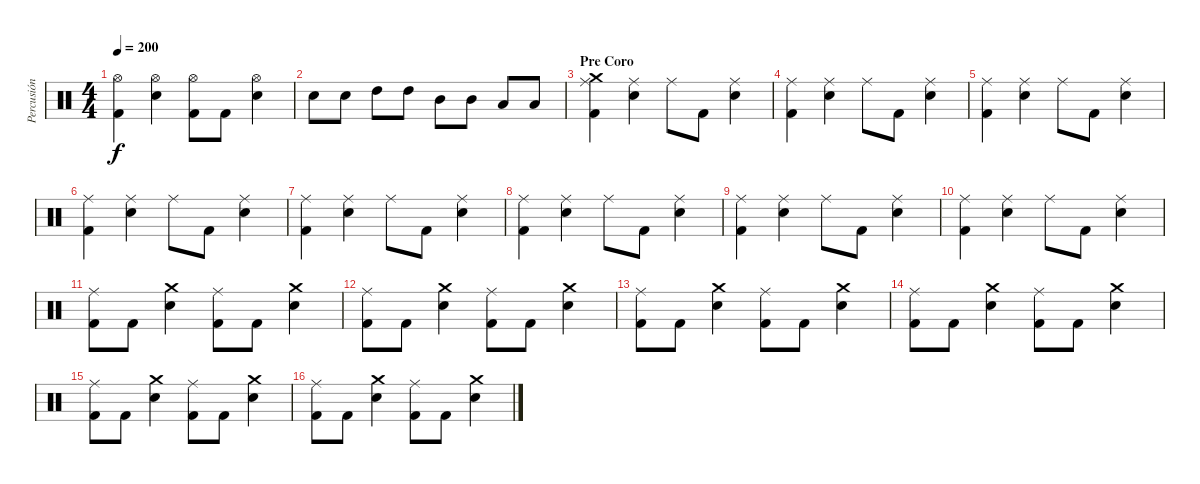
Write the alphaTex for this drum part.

\track ("Percusión" "Percusión") {instrument percussion}
\staff {score}
\articulation defaults
\ts (4 4)
\tempo 200
\clef neutral
\ks c
("Hi-Hat (open)" "Kick (hit) 2").4{dy f} ("Snare (hit) 2" "Hi-Hat (open)").4 ("Hi-Hat (open)" "Kick (hit) 2").8 "Kick (hit) 2".8 ("Snare (hit) 2" "Hi-Hat (open)").4 |
"Snare (hit) 2".8 "Snare (hit) 2".8 "High Tom (hit)".8 "High Tom (hit)".8 "Mid Tom (hit)".8 "Mid Tom (hit)".8 "Low Tom (hit)".8 "Low Tom (hit)".8 |
\section ("" "Pre Coro")
("Crash medium (hit)" "Kick (hit) 2" "Ride (middle)").4 ("Ride (middle)" "Snare (hit) 2").4 "Ride (middle)".8 "Kick (hit) 2".8 ("Ride (middle)" "Snare (hit) 2").4 |
("Kick (hit) 2" "Ride (middle)").4 ("Ride (middle)" "Snare (hit) 2").4 "Ride (middle)".8 "Kick (hit) 2".8 ("Ride (middle)" "Snare (hit) 2").4 |
("Kick (hit) 2" "Ride (middle)").4 ("Ride (middle)" "Snare (hit) 2").4 "Ride (middle)".8 "Kick (hit) 2".8 ("Ride (middle)" "Snare (hit) 2").4 |
("Kick (hit) 2" "Ride (middle)").4 ("Ride (middle)" "Snare (hit) 2").4 "Ride (middle)".8 "Kick (hit) 2".8 ("Ride (middle)" "Snare (hit) 2").4 |
("Kick (hit) 2" "Ride (middle)").4 ("Ride (middle)" "Snare (hit) 2").4 "Ride (middle)".8 "Kick (hit) 2".8 ("Ride (middle)" "Snare (hit) 2").4 |
("Kick (hit) 2" "Ride (middle)").4 ("Ride (middle)" "Snare (hit) 2").4 "Ride (middle)".8 "Kick (hit) 2".8 ("Ride (middle)" "Snare (hit) 2").4 |
("Kick (hit) 2" "Ride (middle)").4 ("Ride (middle)" "Snare (hit) 2").4 "Ride (middle)".8 "Kick (hit) 2".8 ("Ride (middle)" "Snare (hit) 2").4 |
("Kick (hit) 2" "Ride (middle)").4 ("Ride (middle)" "Snare (hit) 2").4 "Ride (middle)".8 "Kick (hit) 2".8 ("Ride (middle)" "Snare (hit) 2").4 |
("Kick (hit) 2" "Ride (middle)").8 "Kick (hit) 2".8 ("Snare (hit) 2" "Crash medium (hit)").4 ("Kick (hit) 2" "Ride (middle)").8 "Kick (hit) 2".8 ("Snare (hit) 2" "Crash medium (hit)").4 |
("Kick (hit) 2" "Ride (middle)").8 "Kick (hit) 2".8 ("Snare (hit) 2" "Crash medium (hit)").4 ("Kick (hit) 2" "Ride (middle)").8 "Kick (hit) 2".8 ("Snare (hit) 2" "Crash medium (hit)").4 |
("Kick (hit) 2" "Ride (middle)").8 "Kick (hit) 2".8 ("Snare (hit) 2" "Crash medium (hit)").4 ("Kick (hit) 2" "Ride (middle)").8 "Kick (hit) 2".8 ("Snare (hit) 2" "Crash medium (hit)").4 |
("Kick (hit) 2" "Ride (middle)").8 "Kick (hit) 2".8 ("Snare (hit) 2" "Crash medium (hit)").4 ("Kick (hit) 2" "Ride (middle)").8 "Kick (hit) 2".8 ("Snare (hit) 2" "Crash medium (hit)").4 |
("Kick (hit) 2" "Ride (middle)").8 "Kick (hit) 2".8 ("Snare (hit) 2" "Crash medium (hit)").4 ("Kick (hit) 2" "Ride (middle)").8 "Kick (hit) 2".8 ("Snare (hit) 2" "Crash medium (hit)").4 |
("Kick (hit) 2" "Ride (middle)").8 "Kick (hit) 2".8 ("Snare (hit) 2" "Crash medium (hit)").4 ("Kick (hit) 2" "Ride (middle)").8 "Kick (hit) 2".8 ("Snare (hit) 2" "Crash medium (hit)").4
